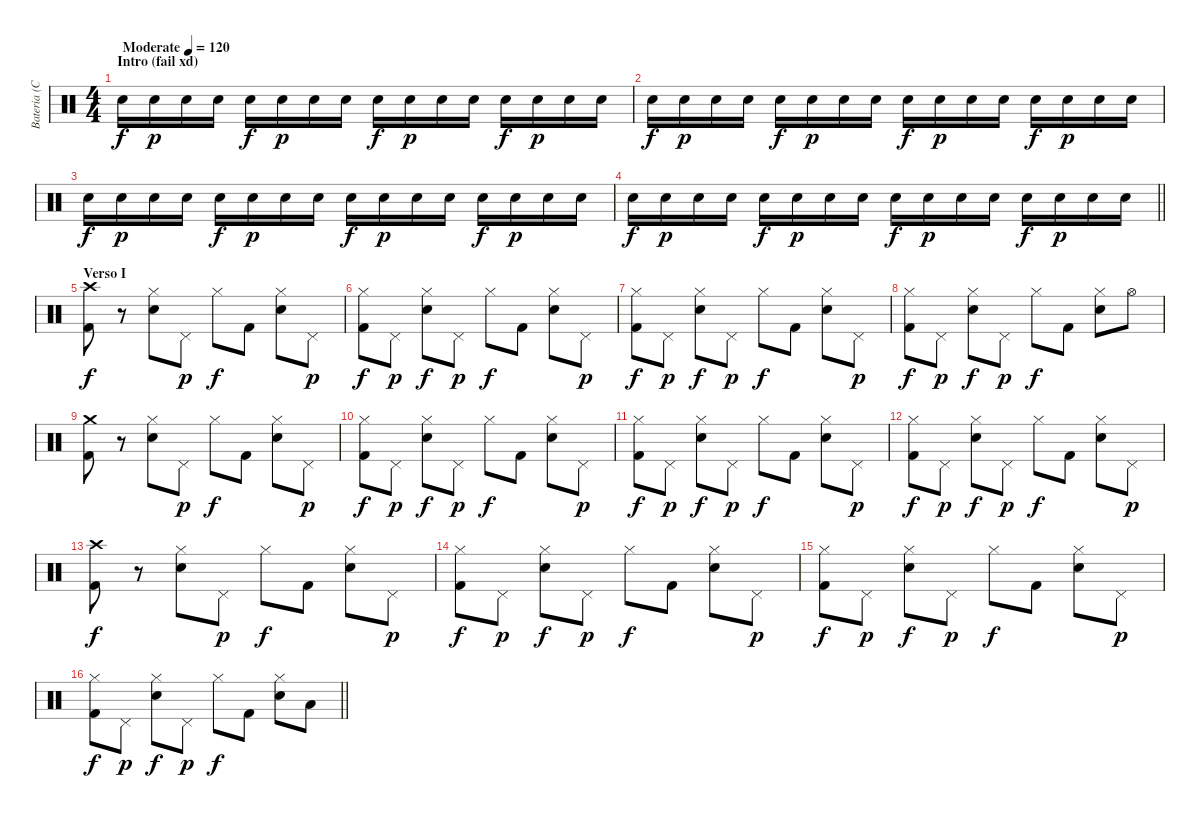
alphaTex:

\track ("Bateria (Ciro)" "Bateria (C") {instrument percussion}
\staff {score}
\articulation defaults
\ts (4 4)
\section ("" "Intro (fail xd)")
\tempo (120 "Moderate")
\clef neutral
\ks c "Snare (hit) 2".16{dy f} "Snare (hit) 2".16{dy p} "Snare (hit) 2".16 "Snare (hit) 2".16 "Snare (hit) 2".16{dy f} "Snare (hit) 2".16{dy p} "Snare (hit) 2".16 "Snare (hit) 2".16 "Snare (hit) 2".16{dy f} "Snare (hit) 2".16{dy p} "Snare (hit) 2".16 "Snare (hit) 2".16 "Snare (hit) 2".16{dy f} "Snare (hit) 2".16{dy p} "Snare (hit) 2".16 "Snare (hit) 2".16
|
"Snare (hit) 2".16{dy f} "Snare (hit) 2".16{dy p} "Snare (hit) 2".16 "Snare (hit) 2".16 "Snare (hit) 2".16{dy f} "Snare (hit) 2".16{dy p} "Snare (hit) 2".16 "Snare (hit) 2".16 "Snare (hit) 2".16{dy f} "Snare (hit) 2".16{dy p} "Snare (hit) 2".16 "Snare (hit) 2".16 "Snare (hit) 2".16{dy f} "Snare (hit) 2".16{dy p} "Snare (hit) 2".16 "Snare (hit) 2".16 |
"Snare (hit) 2".16{dy f} "Snare (hit) 2".16{dy p} "Snare (hit) 2".16 "Snare (hit) 2".16 "Snare (hit) 2".16{dy f} "Snare (hit) 2".16{dy p} "Snare (hit) 2".16 "Snare (hit) 2".16 "Snare (hit) 2".16{dy f} "Snare (hit) 2".16{dy p} "Snare (hit) 2".16 "Snare (hit) 2".16 "Snare (hit) 2".16{dy f} "Snare (hit) 2".16{dy p} "Snare (hit) 2".16 "Snare (hit) 2".16 |
\barLineRight lightlight "Snare (hit) 2".16{dy f} "Snare (hit) 2".16{dy p} "Snare (hit) 2".16 "Snare (hit) 2".16 "Snare (hit) 2".16{dy f} "Snare (hit) 2".16{dy p} "Snare (hit) 2".16 "Snare (hit) 2".16 "Snare (hit) 2".16{dy f} "Snare (hit) 2".16{dy p} "Snare (hit) 2".16 "Snare (hit) 2".16 "Snare (hit) 2".16{dy f} "Snare (hit) 2".16{dy p} "Snare (hit) 2".16 "Snare (hit) 2".16
|
\section ("" "Verso I")
("Crash high (hit)" "Kick (hit) 2").8{dy f} r.8 ("Hi-Hat (closed)" "Snare (hit) 2").8 "Pedal Hi-Hat (hit)".8{dy p} "Hi-Hat (closed)".8{dy f} "Kick (hit) 2".8 ("Hi-Hat (closed)" "Snare (hit) 2").8 "Pedal Hi-Hat (hit)".8{dy p} |
("Hi-Hat (closed)" "Kick (hit) 2").8{dy f} "Pedal Hi-Hat (hit)".8{dy p} ("Hi-Hat (closed)" "Snare (hit) 2").8{dy f} "Pedal Hi-Hat (hit)".8{dy p} "Hi-Hat (closed)".8{dy f} "Kick (hit) 2".8 ("Hi-Hat (closed)" "Snare (hit) 2").8 "Pedal Hi-Hat (hit)".8{dy p} |
("Hi-Hat (closed)" "Kick (hit) 2").8{dy f} "Pedal Hi-Hat (hit)".8{dy p} ("Hi-Hat (closed)" "Snare (hit) 2").8{dy f} "Pedal Hi-Hat (hit)".8{dy p} "Hi-Hat (closed)".8{dy f} "Kick (hit) 2".8 ("Hi-Hat (closed)" "Snare (hit) 2").8 "Pedal Hi-Hat (hit)".8{dy p} |
("Hi-Hat (closed)" "Kick (hit) 2").8{dy f} "Pedal Hi-Hat (hit)".8{dy p} ("Hi-Hat (closed)" "Snare (hit) 2").8{dy f} "Pedal Hi-Hat (hit)".8{dy p} "Hi-Hat (closed)".8{dy f} "Kick (hit) 2".8 ("Hi-Hat (closed)" "Snare (hit) 2").8 "Hi-Hat (open)".8 |
("Crash medium (hit)" "Kick (hit) 2").8 r.8 ("Hi-Hat (closed)" "Snare (hit) 2").8 "Pedal Hi-Hat (hit)".8{dy p} "Hi-Hat (closed)".8{dy f} "Kick (hit) 2".8 ("Hi-Hat (closed)" "Snare (hit) 2").8 "Pedal Hi-Hat (hit)".8{dy p} |
("Hi-Hat (closed)" "Kick (hit) 2").8{dy f} "Pedal Hi-Hat (hit)".8{dy p} ("Hi-Hat (closed)" "Snare (hit) 2").8{dy f} "Pedal Hi-Hat (hit)".8{dy p} "Hi-Hat (closed)".8{dy f} "Kick (hit) 2".8 ("Hi-Hat (closed)" "Snare (hit) 2").8 "Pedal Hi-Hat (hit)".8{dy p} |
("Hi-Hat (closed)" "Kick (hit) 2").8{dy f} "Pedal Hi-Hat (hit)".8{dy p} ("Hi-Hat (closed)" "Snare (hit) 2").8{dy f} "Pedal Hi-Hat (hit)".8{dy p} "Hi-Hat (closed)".8{dy f} "Kick (hit) 2".8 ("Hi-Hat (closed)" "Snare (hit) 2").8 "Pedal Hi-Hat (hit)".8{dy p} |
("Hi-Hat (closed)" "Kick (hit) 2").8{dy f} "Pedal Hi-Hat (hit)".8{dy p} ("Hi-Hat (closed)" "Snare (hit) 2").8{dy f} "Pedal Hi-Hat (hit)".8{dy p} "Hi-Hat (closed)".8{dy f} "Kick (hit) 2".8 ("Hi-Hat (closed)" "Snare (hit) 2").8 "Pedal Hi-Hat (hit)".8{dy p} |
("Crash high (hit)" "Kick (hit) 2").8{dy f} r.8 ("Hi-Hat (closed)" "Snare (hit) 2").8 "Pedal Hi-Hat (hit)".8{dy p} "Hi-Hat (closed)".8{dy f} "Kick (hit) 2".8 ("Hi-Hat (closed)" "Snare (hit) 2").8 "Pedal Hi-Hat (hit)".8{dy p} |
("Hi-Hat (closed)" "Kick (hit) 2").8{dy f} "Pedal Hi-Hat (hit)".8{dy p} ("Hi-Hat (closed)" "Snare (hit) 2").8{dy f} "Pedal Hi-Hat (hit)".8{dy p} "Hi-Hat (closed)".8{dy f} "Kick (hit) 2".8 ("Hi-Hat (closed)" "Snare (hit) 2").8 "Pedal Hi-Hat (hit)".8{dy p} |
("Hi-Hat (closed)" "Kick (hit) 2").8{dy f} "Pedal Hi-Hat (hit)".8{dy p} ("Hi-Hat (closed)" "Snare (hit) 2").8{dy f} "Pedal Hi-Hat (hit)".8{dy p} "Hi-Hat (closed)".8{dy f} "Kick (hit) 2".8 ("Hi-Hat (closed)" "Snare (hit) 2").8 "Pedal Hi-Hat (hit)".8{dy p} |
\barLineRight lightlight
("Hi-Hat (closed)" "Kick (hit) 2").8{dy f} "Pedal Hi-Hat (hit)".8{dy p} ("Hi-Hat (closed)" "Snare (hit) 2").8{dy f} "Pedal Hi-Hat (hit)".8{dy p} "Hi-Hat (closed)".8{dy f} "Kick (hit) 2".8 ("Hi-Hat (closed)" "Snare (hit) 2").8 "Low Tom (hit)".8
